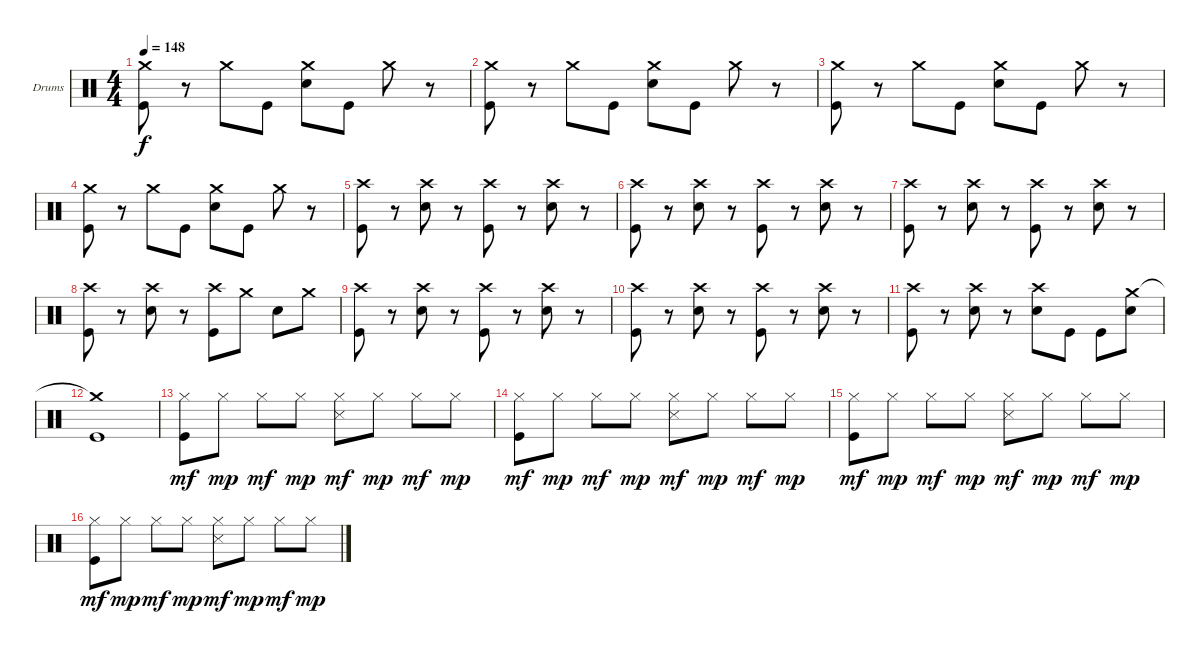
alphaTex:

\defaultSystemsLayout 4
\bracketExtendMode groupsimilarinstruments
\firstSystemTrackNameOrientation horizontal
\otherSystemsTrackNameOrientation horizontal
\track ("Drumkit" "Drums") {instrument percussion}
\staff {score}
\articulation defaults
\ts (4 4)
\tempo 148
\clef neutral
\scale
0.333333
\ks c
("Crash medium (hit)" "Kick (hit)").8{dy f} r.8 "Crash medium (hit)".8 "Kick (hit)".8 ("Crash medium (hit)" "Snare (hit) 2").8 "Kick (hit)".8 "Crash medium (hit)".8 r.8 |
\scale
0.333333 ("Crash medium (hit)" "Kick (hit)").8 r.8 "Crash medium (hit)".8 "Kick (hit)".8 ("Crash medium (hit)" "Snare (hit) 2").8 "Kick (hit)".8 "Crash medium (hit)".8 r.8 |
\scale
0.333333 ("Crash medium (hit)" "Kick (hit)").8 r.8 "Crash medium (hit)".8 "Kick (hit)".8 ("Crash medium (hit)" "Snare (hit) 2").8 "Kick (hit)".8 "Crash medium (hit)".8 r.8 |
\scale
0.333333 ("Crash medium (hit)" "Kick (hit)").8 r.8 "Crash medium (hit)".8 "Kick (hit)".8 ("Crash medium (hit)" "Snare (hit) 2").8 "Kick (hit)".8 "Crash medium (hit)".8 r.8 |
\scale
0.333333 ("Crash high (hit)" "Kick (hit)").8 r.8 ("Crash high (hit)" "Snare (hit) 2").8 r.8 ("Crash high (hit)" "Kick (hit)").8 r.8 ("Crash high (hit)" "Snare (hit) 2").8 r.8 |
\scale
0.333333 ("Crash high (hit)" "Kick (hit)").8 r.8 ("Crash high (hit)" "Snare (hit) 2").8 r.8 ("Crash high (hit)" "Kick (hit)").8 r.8 ("Crash high (hit)" "Snare (hit) 2").8 r.8 |
\scale
0.333333 ("Crash high (hit)" "Kick (hit)").8 r.8 ("Crash high (hit)" "Snare (hit) 2").8 r.8 ("Crash high (hit)" "Kick (hit)").8 r.8 ("Crash high (hit)" "Snare (hit) 2").8 r.8 |
\scale
0.333333 ("Crash high (hit)" "Kick (hit)").8 r.8 ("Crash high (hit)" "Snare (hit) 2").8 r.8 ("Crash high (hit)" "Kick (hit)").8 "Crash medium (hit)".8 "Snare (hit) 2".8 "Crash medium (hit)".8 |
\scale
0.333333 ("Crash high (hit)" "Kick (hit)").8 r.8 ("Crash high (hit)" "Snare (hit) 2").8 r.8 ("Crash high (hit)" "Kick (hit)").8 r.8 ("Crash high (hit)" "Snare (hit) 2").8 r.8 |
\scale
0.333333 ("Crash high (hit)" "Kick (hit)").8 r.8 ("Crash high (hit)" "Snare (hit) 2").8 r.8 ("Crash high (hit)" "Kick (hit)").8 r.8 ("Crash high (hit)" "Snare (hit) 2").8 r.8 |
\scale
0.333333 ("Crash high (hit)" "Kick (hit)").8 r.8 ("Crash high (hit)" "Snare (hit) 2").8 r.8 ("Crash high (hit)" "Snare (hit) 2").8 "Kick (hit)".8 "Kick (hit)".8 ("Crash medium (hit)" "Snare (hit) 2").8 |
\scale
0.333333 ("Crash medium (hit)"{t} "Kick (hit)").1 |
\scale
0.333333 ("Hi-Hat (closed)" "Kick (hit)").8{dy mf} "Hi-Hat (closed)".8{dy mp} "Hi-Hat (closed)".8{dy mf} "Hi-Hat (closed)".8{dy mp} ("Hi-Hat (closed)" "Snare (side stick) 3").8{dy mf} "Hi-Hat (closed)".8{dy mp} "Hi-Hat (closed)".8{dy mf} "Hi-Hat (closed)".8{dy mp} |
\scale
0.333333 ("Hi-Hat (closed)" "Kick (hit)").8{dy mf} "Hi-Hat (closed)".8{dy mp} "Hi-Hat (closed)".8{dy mf} "Hi-Hat (closed)".8{dy mp} ("Hi-Hat (closed)" "Snare (side stick) 3").8{dy mf} "Hi-Hat (closed)".8{dy mp} "Hi-Hat (closed)".8{dy mf} "Hi-Hat (closed)".8{dy mp} |
\scale
0.333333 ("Hi-Hat (closed)" "Kick (hit)").8{dy mf} "Hi-Hat (closed)".8{dy mp} "Hi-Hat (closed)".8{dy mf} "Hi-Hat (closed)".8{dy mp} ("Hi-Hat (closed)" "Snare (side stick) 3").8{dy mf} "Hi-Hat (closed)".8{dy mp} "Hi-Hat (closed)".8{dy mf} "Hi-Hat (closed)".8{dy mp} |
\scale
0.333333 ("Hi-Hat (closed)" "Kick (hit)").8{dy mf} "Hi-Hat (closed)".8{dy mp} "Hi-Hat (closed)".8{dy mf} "Hi-Hat (closed)".8{dy mp} ("Hi-Hat (closed)" "Snare (side stick) 3").8{dy mf} "Hi-Hat (closed)".8{dy mp} "Hi-Hat (closed)".8{dy mf} "Hi-Hat (closed)".8{dy mp}
